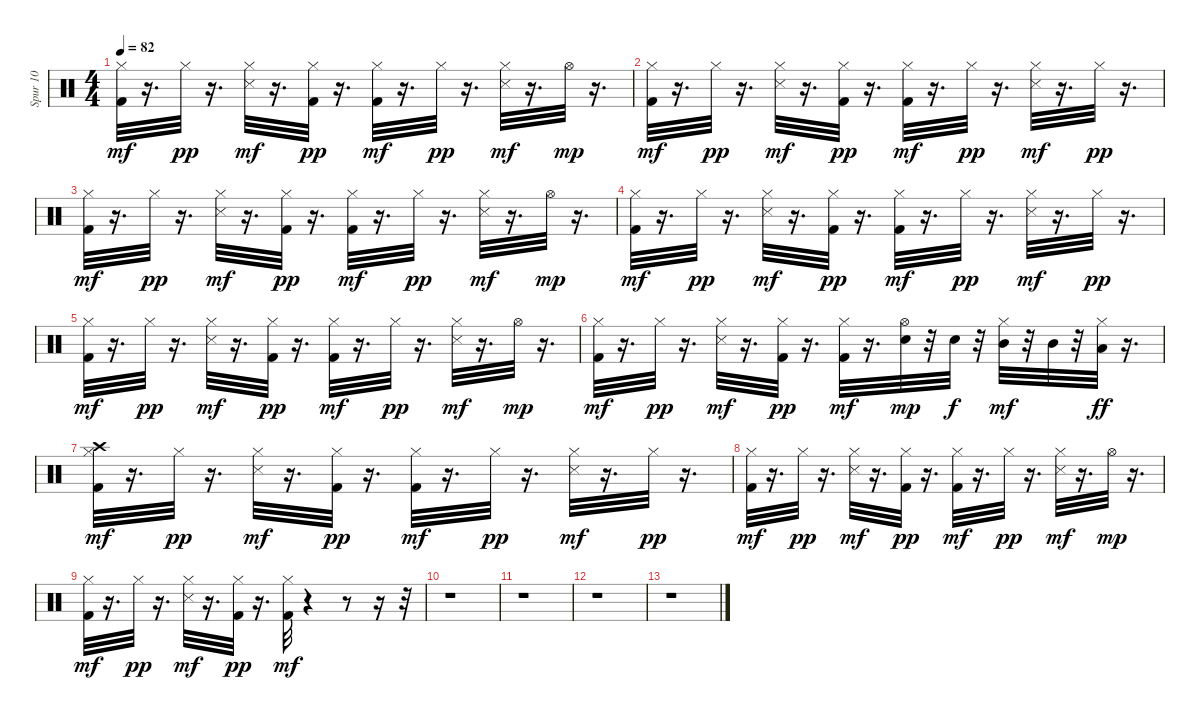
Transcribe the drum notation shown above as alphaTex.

\track ("Spur 10" "Spur 10") {instrument percussion}
\staff {score}
\articulation defaults
\ts (4 4)
\tempo 82
\clef neutral
\ks c
("Kick (hit) 2" "Hi-Hat (closed)").32{dy mf} r.16{d} "Hi-Hat (closed)".32{dy pp} r.16{d} ("Snare (side stick) 3" "Hi-Hat (closed)").32{dy mf} r.16{d} ("Kick (hit) 2" "Hi-Hat (closed)").32{dy pp} r.16{d} ("Kick (hit) 2" "Hi-Hat (closed)").32{dy mf} r.16{d} "Hi-Hat (closed)".32{dy pp} r.16{d} ("Snare (side stick) 3" "Hi-Hat (closed)").32{dy mf} r.16{d} "Hi-Hat (open)".32{dy mp} r.16{d} |
("Kick (hit) 2" "Hi-Hat (closed)").32{dy mf} r.16{d} "Hi-Hat (closed)".32{dy pp} r.16{d} ("Snare (side stick) 3" "Hi-Hat (closed)").32{dy mf} r.16{d} ("Kick (hit) 2" "Hi-Hat (closed)").32{dy pp} r.16{d} ("Kick (hit) 2" "Hi-Hat (closed)").32{dy mf} r.16{d} "Hi-Hat (closed)".32{dy pp} r.16{d} ("Snare (side stick) 3" "Hi-Hat (closed)").32{dy mf} r.16{d} "Hi-Hat (closed)".32{dy pp} r.16{d} |
("Kick (hit) 2" "Hi-Hat (closed)").32{dy mf} r.16{d} "Hi-Hat (closed)".32{dy pp} r.16{d} ("Snare (side stick) 3" "Hi-Hat (closed)").32{dy mf} r.16{d} ("Kick (hit) 2" "Hi-Hat (closed)").32{dy pp} r.16{d} ("Kick (hit) 2" "Hi-Hat (closed)").32{dy mf} r.16{d} "Hi-Hat (closed)".32{dy pp} r.16{d} ("Snare (side stick) 3" "Hi-Hat (closed)").32{dy mf} r.16{d} "Hi-Hat (open)".32{dy mp} r.16{d} |
("Kick (hit) 2" "Hi-Hat (closed)").32{dy mf} r.16{d} "Hi-Hat (closed)".32{dy pp} r.16{d} ("Snare (side stick) 3" "Hi-Hat (closed)").32{dy mf} r.16{d} ("Kick (hit) 2" "Hi-Hat (closed)").32{dy pp} r.16{d} ("Kick (hit) 2" "Hi-Hat (closed)").32{dy mf} r.16{d} "Hi-Hat (closed)".32{dy pp} r.16{d} ("Snare (side stick) 3" "Hi-Hat (closed)").32{dy mf} r.16{d} "Hi-Hat (closed)".32{dy pp} r.16{d} |
("Kick (hit) 2" "Hi-Hat (closed)").32{dy mf} r.16{d} "Hi-Hat (closed)".32{dy pp} r.16{d} ("Snare (side stick) 3" "Hi-Hat (closed)").32{dy mf} r.16{d} ("Kick (hit) 2" "Hi-Hat (closed)").32{dy pp} r.16{d} ("Kick (hit) 2" "Hi-Hat (closed)").32{dy mf} r.16{d} "Hi-Hat (closed)".32{dy pp} r.16{d} ("Snare (side stick) 3" "Hi-Hat (closed)").32{dy mf} r.16{d} "Hi-Hat (open)".32{dy mp} r.16{d} |
("Kick (hit) 2" "Hi-Hat (closed)").32{dy mf} r.16{d} "Hi-Hat (closed)".32{dy pp} r.16{d} ("Snare (side stick) 3" "Hi-Hat (closed)").32{dy mf} r.16{d} ("Kick (hit) 2" "Hi-Hat (closed)").32{dy pp} r.16{d} ("Kick (hit) 2" "Hi-Hat (closed)").32{dy mf} r.16{d} ("Electric Snare (hit)" "Hi-Hat (open)").32{dy mp} r.32 "Electric Snare (hit)".32{dy f} r.32 ("Hi-Hat (closed)" "Mid Tom (hit)").32{dy mf} r.32 "Mid Tom (hit)".32 r.32 ("Hi-Hat (closed)" "Low Tom (hit)").32{dy ff} r.16{d} |
("Crash high (hit)" "Kick (hit) 2" "Hi-Hat (closed)").32{dy mf} r.16{d} "Hi-Hat (closed)".32{dy pp} r.16{d} ("Snare (side stick) 3" "Hi-Hat (closed)").32{dy mf} r.16{d} ("Kick (hit) 2" "Hi-Hat (closed)").32{dy pp} r.16{d} ("Kick (hit) 2" "Hi-Hat (closed)").32{dy mf} r.16{d} "Hi-Hat (closed)".32{dy pp} r.16{d} ("Snare (side stick) 3" "Hi-Hat (closed)").32{dy mf} r.16{d} "Hi-Hat (closed)".32{dy pp} r.16{d} |
("Kick (hit) 2" "Hi-Hat (closed)").32{dy mf} r.16{d} "Hi-Hat (closed)".32{dy pp} r.16{d} ("Snare (side stick) 3" "Hi-Hat (closed)").32{dy mf} r.16{d} ("Kick (hit) 2" "Hi-Hat (closed)").32{dy pp} r.16{d} ("Kick (hit) 2" "Hi-Hat (closed)").32{dy mf} r.16{d} "Hi-Hat (closed)".32{dy pp} r.16{d} ("Snare (side stick) 3" "Hi-Hat (closed)").32{dy mf} r.16{d} "Hi-Hat (open)".32{dy mp} r.16{d} |
("Kick (hit) 2" "Hi-Hat (closed)").32{dy mf} r.16{d} "Hi-Hat (closed)".32{dy pp} r.16{d} ("Snare (side stick) 3" "Hi-Hat (closed)").32{dy mf} r.16{d} ("Kick (hit) 2" "Hi-Hat (closed)").32{dy pp} r.16{d} ("Kick (hit) 2" "Hi-Hat (closed)").32{dy mf} r.4 r.8 r.16 r.32 |
r.1 |
r.1 |
r.1 |
r.1
